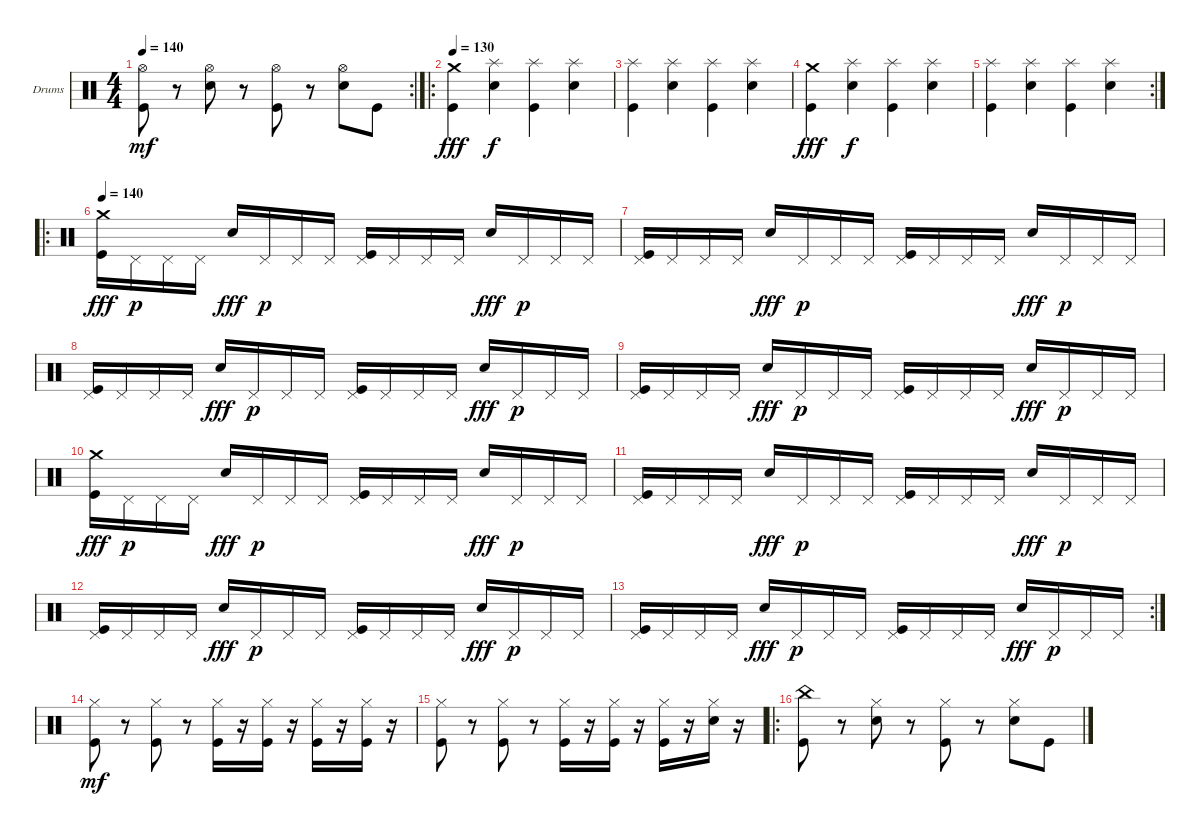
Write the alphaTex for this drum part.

\bracketExtendMode groupsimilarinstruments
\firstSystemTrackNameOrientation horizontal
\otherSystemsTrackNameOrientation horizontal
\track ("Drums" "Drums") {instrument percussion}
\staff {score}
\articulation defaults
\rc 2
\ts (4 4)
\tempo 140
\clef neutral
\ks c
("Kick (hit)" "Hi-Hat (open)").8{dy mf} r.8 ("Snare (hit) 2" "Hi-Hat (open)").8 r.8 ("Kick (hit)" "Hi-Hat (open)").8 r.8 ("Snare (hit) 2" "Hi-Hat (open)").8 "Kick (hit)".8 |
\ro
\tempo 130
("Crash medium (hit)" "Kick (hit)").4{dy fff} ("Splash (hit)" "Snare (hit) 2").4{dy f} ("Splash (hit)" "Kick (hit)").4 ("Splash (hit)" "Snare (hit) 2").4 |
("Splash (hit)" "Kick (hit)").4 ("Splash (hit)" "Snare (hit) 2").4 ("Splash (hit)" "Kick (hit)").4 ("Splash (hit)" "Snare (hit) 2").4 |
("Crash medium (hit)" "Kick (hit)").4{dy fff} ("Splash (hit)" "Snare (hit) 2").4{dy f} ("Splash (hit)" "Kick (hit)").4 ("Splash (hit)" "Snare (hit) 2").4 |
\rc 2
("Splash (hit)" "Kick (hit)").4 ("Splash (hit)" "Snare (hit) 2").4 ("Splash (hit)" "Kick (hit)").4 ("Splash (hit)" "Snare (hit) 2").4 |
\ro
\tempo 140
("Crash medium (hit)" "Kick (hit)").16{dy fff} "Pedal Hi-Hat (hit)".16{dy p} "Pedal Hi-Hat (hit)".16 "Pedal Hi-Hat (hit)".16 "Snare (hit) 2".16{dy fff} "Pedal Hi-Hat (hit)".16{dy p} "Pedal Hi-Hat (hit)".16 "Pedal Hi-Hat (hit)".16 ("Pedal Hi-Hat (hit)" "Kick (hit)").16 "Pedal Hi-Hat (hit)".16 "Pedal Hi-Hat (hit)".16 "Pedal Hi-Hat (hit)".16 "Snare (hit) 2".16{dy fff} "Pedal Hi-Hat (hit)".16{dy p} "Pedal Hi-Hat (hit)".16 "Pedal Hi-Hat (hit)".16 |
("Pedal Hi-Hat (hit)" "Kick (hit)").16 "Pedal Hi-Hat (hit)".16 "Pedal Hi-Hat (hit)".16 "Pedal Hi-Hat (hit)".16 "Snare (hit) 2".16{dy fff} "Pedal Hi-Hat (hit)".16{dy p} "Pedal Hi-Hat (hit)".16 "Pedal Hi-Hat (hit)".16 ("Pedal Hi-Hat (hit)" "Kick (hit)").16 "Pedal Hi-Hat (hit)".16 "Pedal Hi-Hat (hit)".16 "Pedal Hi-Hat (hit)".16 "Snare (hit) 2".16{dy fff} "Pedal Hi-Hat (hit)".16{dy p} "Pedal Hi-Hat (hit)".16 "Pedal Hi-Hat (hit)".16 |
("Pedal Hi-Hat (hit)" "Kick (hit)").16 "Pedal Hi-Hat (hit)".16 "Pedal Hi-Hat (hit)".16 "Pedal Hi-Hat (hit)".16 "Snare (hit) 2".16{dy fff} "Pedal Hi-Hat (hit)".16{dy p} "Pedal Hi-Hat (hit)".16 "Pedal Hi-Hat (hit)".16 ("Pedal Hi-Hat (hit)" "Kick (hit)").16 "Pedal Hi-Hat (hit)".16 "Pedal Hi-Hat (hit)".16 "Pedal Hi-Hat (hit)".16 "Snare (hit) 2".16{dy fff} "Pedal Hi-Hat (hit)".16{dy p} "Pedal Hi-Hat (hit)".16 "Pedal Hi-Hat (hit)".16 |
("Pedal Hi-Hat (hit)" "Kick (hit)").16 "Pedal Hi-Hat (hit)".16 "Pedal Hi-Hat (hit)".16 "Pedal Hi-Hat (hit)".16 "Snare (hit) 2".16{dy fff} "Pedal Hi-Hat (hit)".16{dy p} "Pedal Hi-Hat (hit)".16 "Pedal Hi-Hat (hit)".16 ("Pedal Hi-Hat (hit)" "Kick (hit)").16 "Pedal Hi-Hat (hit)".16 "Pedal Hi-Hat (hit)".16 "Pedal Hi-Hat (hit)".16 "Snare (hit) 2".16{dy fff} "Pedal Hi-Hat (hit)".16{dy p} "Pedal Hi-Hat (hit)".16 "Pedal Hi-Hat (hit)".16 |
("Crash medium (hit)" "Kick (hit)").16{dy fff} "Pedal Hi-Hat (hit)".16{dy p} "Pedal Hi-Hat (hit)".16 "Pedal Hi-Hat (hit)".16 "Snare (hit) 2".16{dy fff} "Pedal Hi-Hat (hit)".16{dy p} "Pedal Hi-Hat (hit)".16 "Pedal Hi-Hat (hit)".16 ("Pedal Hi-Hat (hit)" "Kick (hit)").16 "Pedal Hi-Hat (hit)".16 "Pedal Hi-Hat (hit)".16 "Pedal Hi-Hat (hit)".16 "Snare (hit) 2".16{dy fff} "Pedal Hi-Hat (hit)".16{dy p} "Pedal Hi-Hat (hit)".16 "Pedal Hi-Hat (hit)".16 |
("Pedal Hi-Hat (hit)" "Kick (hit)").16 "Pedal Hi-Hat (hit)".16 "Pedal Hi-Hat (hit)".16 "Pedal Hi-Hat (hit)".16 "Snare (hit) 2".16{dy fff} "Pedal Hi-Hat (hit)".16{dy p} "Pedal Hi-Hat (hit)".16 "Pedal Hi-Hat (hit)".16 ("Pedal Hi-Hat (hit)" "Kick (hit)").16 "Pedal Hi-Hat (hit)".16 "Pedal Hi-Hat (hit)".16 "Pedal Hi-Hat (hit)".16 "Snare (hit) 2".16{dy fff} "Pedal Hi-Hat (hit)".16{dy p} "Pedal Hi-Hat (hit)".16 "Pedal Hi-Hat (hit)".16 |
("Pedal Hi-Hat (hit)" "Kick (hit)").16 "Pedal Hi-Hat (hit)".16 "Pedal Hi-Hat (hit)".16 "Pedal Hi-Hat (hit)".16 "Snare (hit) 2".16{dy fff} "Pedal Hi-Hat (hit)".16{dy p} "Pedal Hi-Hat (hit)".16 "Pedal Hi-Hat (hit)".16 ("Pedal Hi-Hat (hit)" "Kick (hit)").16 "Pedal Hi-Hat (hit)".16 "Pedal Hi-Hat (hit)".16 "Pedal Hi-Hat (hit)".16 "Snare (hit) 2".16{dy fff} "Pedal Hi-Hat (hit)".16{dy p} "Pedal Hi-Hat (hit)".16 "Pedal Hi-Hat (hit)".16 |
\rc 2
("Pedal Hi-Hat (hit)" "Kick (hit)").16 "Pedal Hi-Hat (hit)".16 "Pedal Hi-Hat (hit)".16 "Pedal Hi-Hat (hit)".16 "Snare (hit) 2".16{dy fff} "Pedal Hi-Hat (hit)".16{dy p} "Pedal Hi-Hat (hit)".16 "Pedal Hi-Hat (hit)".16 ("Pedal Hi-Hat (hit)" "Kick (hit)").16 "Pedal Hi-Hat (hit)".16 "Pedal Hi-Hat (hit)".16 "Pedal Hi-Hat (hit)".16 "Snare (hit) 2".16{dy fff} "Pedal Hi-Hat (hit)".16{dy p} "Pedal Hi-Hat (hit)".16 "Pedal Hi-Hat (hit)".16 |
("Kick (hit)" "Hi-Hat (closed)").8{dy mf} r.8 ("Kick (hit)" "Hi-Hat (closed)").8 r.8 ("Kick (hit)" "Hi-Hat (closed)").16 r.16 ("Kick (hit)" "Hi-Hat (closed)").16 r.16 ("Kick (hit)" "Hi-Hat (closed)").16 r.16 ("Kick (hit)" "Hi-Hat (closed)").16 r.16 |
("Kick (hit)" "Hi-Hat (closed)").8 r.8 ("Kick (hit)" "Hi-Hat (closed)").8 r.8 ("Kick (hit)" "Hi-Hat (closed)").16 r.16 ("Kick (hit)" "Hi-Hat (closed)").16 r.16 ("Kick (hit)" "Hi-Hat (closed)").16 r.16 ("Hi-Hat (closed)" "Snare (hit) 2").16 r.16 |
\ro
("Kick (hit)" "China (hit)").8 r.8 ("Snare (hit) 2" "Hi-Hat (closed)").8 r.8 ("Kick (hit)" "Hi-Hat (closed)").8 r.8 ("Snare (hit) 2" "Hi-Hat (closed)").8 "Kick (hit)".8
